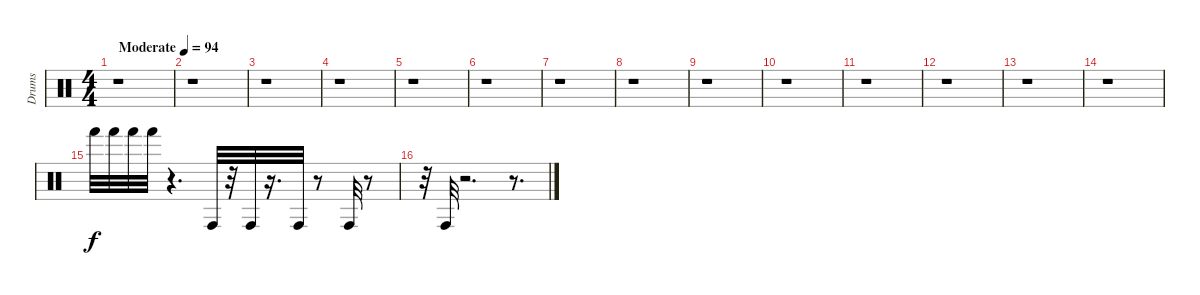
\track ("Drums" "Drums") {instrument percussion}
\staff {score}
\articulation defaults
\ts (4 4)
\tempo (94 "Moderate")
\clef neutral
\ks c
r.1{dy f} |
r.1 |
r.1 |
r.1 |
r.1 |
r.1 |
r.1 |
r.1 |
r.1 |
r.1 |
r.1 |
r.1 |
r.1 |
r.1 |
"Hand (hit)".32 "Hand (hit)".32 "Hand (hit)".32 "Hand (hit)".32 r.4{d} "Conga high (hit)".32 r.32 "Conga high (hit)".32 r.16{d} "Conga high (hit)".32 r.8 "Conga high (hit)".32 r.8 |
r.32 "Conga high (hit)".32 r.2{d} r.8{d}
